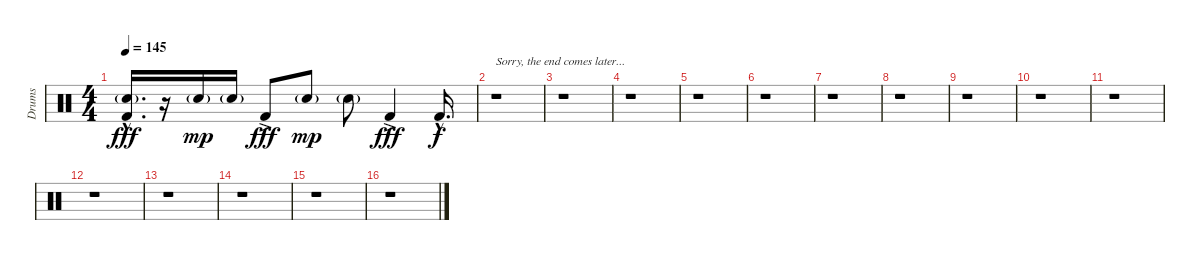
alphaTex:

\track ("Drums" "Drums") {instrument percussion}
\staff {score}
\articulation defaults
\ts (4 4)
\tempo 145
\clef neutral
\ks c
("Snare (hit) 2"{g hac} "Kick (hit) 2"{hac}).16{d dy fff} r.16 "Snare (hit) 2"{g}.16{dy mp} "Snare (hit) 2"{g}.16 "Kick (hit) 2"{ac}.8{dy fff} "Snare (hit) 2"{g}.8{dy mp} "Snare (hit) 2"{g}.8 "Kick (hit) 2"{ac}.4{dy fff} "Kick (hit) 2"{hac}.16{d dy f} |
r.1{txt "Sorry, the end comes later..."} |
r.1 |
r.1 |
r.1 |
r.1 |
r.1 |
r.1 |
r.1 |
r.1 |
r.1 |
r.1 |
r.1 |
r.1 |
r.1 |
r.1
